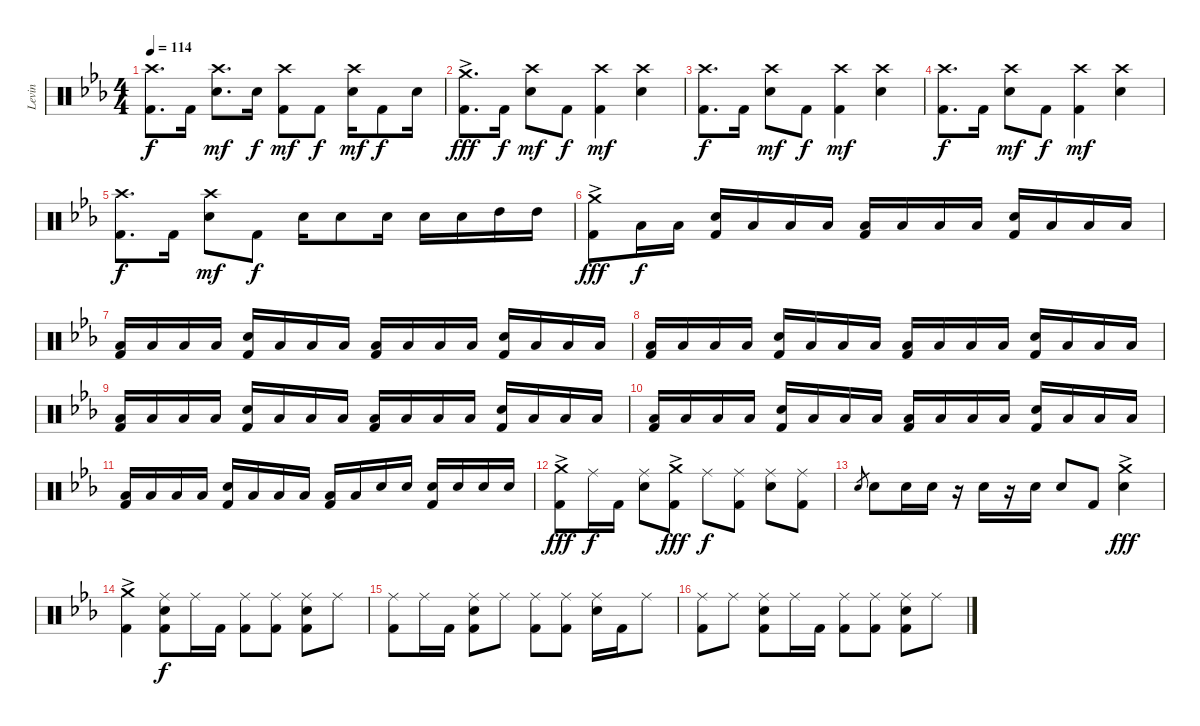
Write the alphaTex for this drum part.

\track ("Levin" "Levin") {instrument percussion}
\staff {score}
\articulation defaults
\ts (4 4)
\tempo 114
\clef neutral
\ks eb
("Crash high (hit)" "Kick (hit) 2").8{d dy f} "Kick (hit) 2".16 ("Crash high (hit)" "Electric Snare (hit)").8{d dy mf} "Electric Snare (hit)".16{dy f} ("Crash high (hit)" "Kick (hit) 2").8{dy mf} "Kick (hit) 2".8{dy f} ("Crash high (hit)" "Electric Snare (hit)").16{dy mf} "Kick (hit) 2".8{dy f} "Electric Snare (hit)".16 |
("Crash medium (hit)"{ac} "Kick (hit) 2").8{d dy fff} "Kick (hit) 2".16{dy f} ("Crash high (hit)" "Electric Snare (hit)").8{dy mf} "Kick (hit) 2".8{dy f} ("Crash high (hit)" "Kick (hit) 2").4{dy mf} ("Crash high (hit)" "Electric Snare (hit)").4 |
("Crash high (hit)" "Kick (hit) 2").8{d dy f} "Kick (hit) 2".16 ("Crash high (hit)" "Electric Snare (hit)").8{dy mf} "Kick (hit) 2".8{dy f} ("Crash high (hit)" "Kick (hit) 2").4{dy mf} ("Crash high (hit)" "Electric Snare (hit)").4 |
("Crash high (hit)" "Kick (hit) 2").8{d dy f} "Kick (hit) 2".16 ("Crash high (hit)" "Electric Snare (hit)").8{dy mf} "Kick (hit) 2".8{dy f} ("Crash high (hit)" "Kick (hit) 2").4{dy mf} ("Crash high (hit)" "Electric Snare (hit)").4 |
("Crash high (hit)" "Kick (hit) 2").8{d dy f} "Kick (hit) 2".16 ("Crash high (hit)" "Electric Snare (hit)").8{dy mf} "Kick (hit) 2".8{dy f} "Electric Snare (hit)".16 "Electric Snare (hit)".8 "Electric Snare (hit)".16 "Electric Snare (hit)".16 "Electric Snare (hit)".16 "High Tom (hit)".16 "High Tom (hit)".16 |
("Crash medium (hit)"{ac} "Kick (hit) 2").8{dy fff} "Low Tom (hit)".16{dy f} "Low Tom (hit)".16 ("Electric Snare (hit)" "Kick (hit) 2").16 "Low Tom (hit)".16 "Low Tom (hit)".16 "Low Tom (hit)".16 ("Low Floor Tom (hit)" "Kick (hit) 2").16 "Low Floor Tom (hit)".16 "Low Floor Tom (hit)".16 "Low Floor Tom (hit)".16 ("Electric Snare (hit)" "Kick (hit) 2").16 "Low Floor Tom (hit)".16 "Low Floor Tom (hit)".16 "Low Floor Tom (hit)".16 |
("Low Floor Tom (hit)" "Kick (hit) 2").16 "Low Floor Tom (hit)".16 "Low Floor Tom (hit)".16 "Low Floor Tom (hit)".16 ("Electric Snare (hit)" "Kick (hit) 2").16 "Low Tom (hit)".16 "Low Tom (hit)".16 "Low Tom (hit)".16 ("Low Floor Tom (hit)" "Kick (hit) 2").16 "Low Floor Tom (hit)".16 "Low Floor Tom (hit)".16 "Low Floor Tom (hit)".16 ("Electric Snare (hit)" "Kick (hit) 2").16 "Low Floor Tom (hit)".16 "Low Floor Tom (hit)".16 "Low Floor Tom (hit)".16 |
("Low Tom (hit)" "Kick (hit) 2").16 "Low Tom (hit)".16 "Low Tom (hit)".16 "Low Tom (hit)".16 ("Electric Snare (hit)" "Kick (hit) 2").16 "Low Tom (hit)".16 "Low Tom (hit)".16 "Low Tom (hit)".16 ("Low Tom (hit)" "Kick (hit) 2").16 "Low Tom (hit)".16 "Low Tom (hit)".16 "Low Tom (hit)".16 ("Electric Snare (hit)" "Kick (hit) 2").16 "Low Tom (hit)".16 "Low Tom (hit)".16 "Low Tom (hit)".16 |
("Low Floor Tom (hit)" "Kick (hit) 2").16 "Low Floor Tom (hit)".16 "Low Floor Tom (hit)".16 "Low Floor Tom (hit)".16 ("Electric Snare (hit)" "Kick (hit) 2").16 "Low Floor Tom (hit)".16 "Low Floor Tom (hit)".16 "Low Floor Tom (hit)".16 ("Low Floor Tom (hit)" "Kick (hit) 2").16 "Low Floor Tom (hit)".16 "Low Floor Tom (hit)".16 "Low Floor Tom (hit)".16 ("Electric Snare (hit)" "Kick (hit) 2").16 "Low Floor Tom (hit)".16 "Low Floor Tom (hit)".16 "Low Floor Tom (hit)".16 |
("Low Tom (hit)" "Kick (hit) 2").16 "Low Floor Tom (hit)".16 "Low Tom (hit)".16 "Low Floor Tom (hit)".16 ("Electric Snare (hit)" "Kick (hit) 2").16 "Low Floor Tom (hit)".16 "Low Floor Tom (hit)".16 "Low Floor Tom (hit)".16 ("Low Floor Tom (hit)" "Kick (hit) 2").16 "Low Floor Tom (hit)".16 "Low Floor Tom (hit)".16 "Low Floor Tom (hit)".16 ("Electric Snare (hit)" "Kick (hit) 2").16 "Low Floor Tom (hit)".16 "Low Floor Tom (hit)".16 "Low Floor Tom (hit)".16 |
("Low Floor Tom (hit)" "Kick (hit) 2").16 "Low Floor Tom (hit)".16 "Low Floor Tom (hit)".16 "Low Floor Tom (hit)".16 ("Electric Snare (hit)" "Kick (hit) 2").16 "Low Floor Tom (hit)".16 "Low Floor Tom (hit)".16 "Low Floor Tom (hit)".16 ("Low Floor Tom (hit)" "Kick (hit) 2").16 "Low Floor Tom (hit)".16 "Electric Snare (hit)".16 "Electric Snare (hit)".16 ("Electric Snare (hit)" "Kick (hit) 2").16 "Electric Snare (hit)".16 "Electric Snare (hit)".16 "Electric Snare (hit)".16 |
("Crash medium (hit)"{ac} "Kick (hit) 2").8{dy fff} "Ride (middle)".16{dy f} "Kick (hit) 2".16 ("Ride (middle)" "Electric Snare (hit)").8 ("Crash medium (hit)"{ac} "Kick (hit) 2").8{dy fff} "Ride (middle)".8{dy f} ("Ride (middle)" "Kick (hit) 2").8 ("Ride (middle)" "Electric Snare (hit)").8 ("Ride (middle)" "Kick (hit) 2").8 |
"Electric Snare (hit)".8{gr} "Electric Snare (hit)".8 "Electric Snare (hit)".16 "Electric Snare (hit)".16 r.16 "Electric Snare (hit)".16 r.16 "Electric Snare (hit)".16 "Electric Snare (hit)".8 "Kick (hit) 2".8 ("Crash medium (hit)"{ac} "Electric Snare (hit)").4{dy fff} |
("Crash medium (hit)"{ac} "Kick (hit) 2").4 ("Ride (middle)" "Electric Snare (hit)" "Kick (hit) 2").8{dy f} "Ride (middle)".16 "Kick (hit) 2".16 ("Ride (middle)" "Kick (hit) 2").8 ("Ride (middle)" "Kick (hit) 2").8 ("Ride (middle)" "Electric Snare (hit)" "Kick (hit) 2").8 "Ride (middle)".8 |
("Ride (middle)" "Kick (hit) 2").8 "Ride (middle)".16 "Kick (hit) 2".16 ("Ride (middle)" "Electric Snare (hit)" "Kick (hit) 2").8 "Ride (middle)".8 ("Ride (middle)" "Kick (hit) 2").8 ("Ride (middle)" "Kick (hit) 2").8 ("Ride (middle)" "Electric Snare (hit)").16 "Kick (hit) 2".16 "Ride (middle)".8 |
("Ride (middle)" "Kick (hit) 2").8 "Ride (middle)".8 ("Ride (middle)" "Electric Snare (hit)" "Kick (hit) 2").8 "Ride (middle)".16 "Kick (hit) 2".16 ("Ride (middle)" "Kick (hit) 2").8 ("Ride (middle)" "Kick (hit) 2").8 ("Ride (middle)" "Electric Snare (hit)" "Kick (hit) 2").8 "Ride (middle)".8
